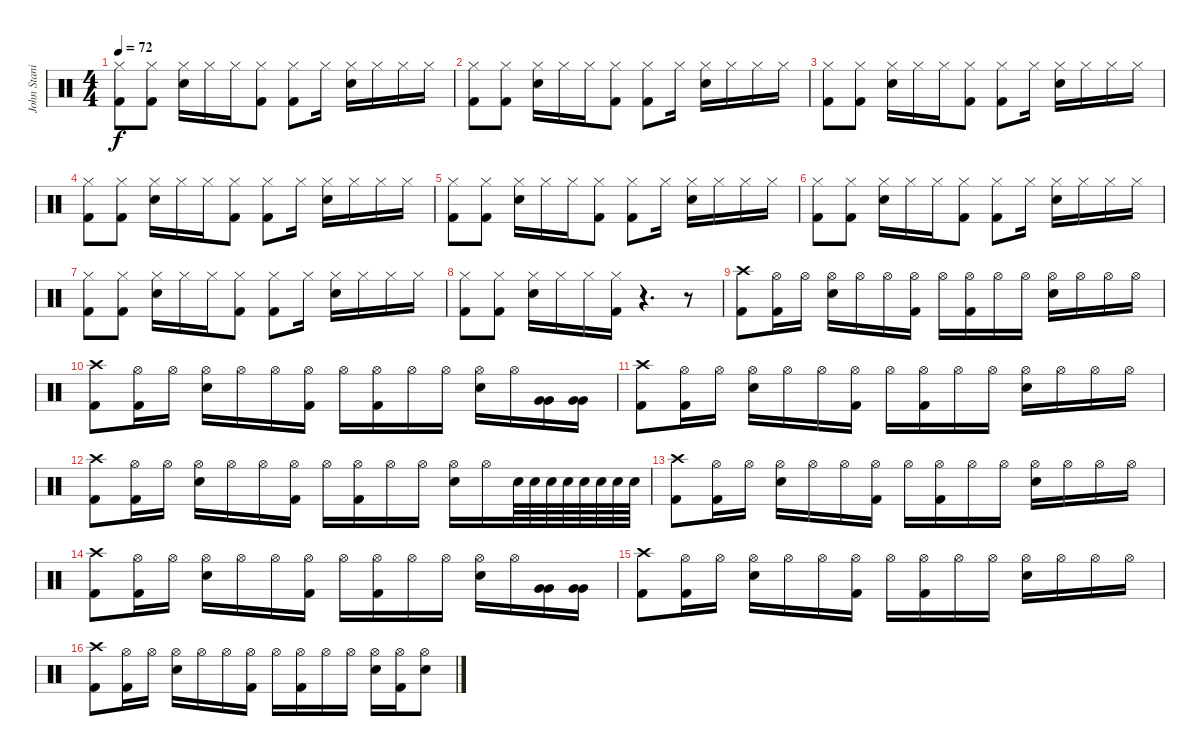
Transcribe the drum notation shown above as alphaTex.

\track ("John Stanier (Drums)" "John Stani") {instrument percussion}
\staff {score}
\articulation defaults
\ts (4 4)
\tempo 72
\clef neutral
\ks c
("Hi-Hat (closed)" "Kick (hit) 2").8{dy f} ("Hi-Hat (closed)" "Kick (hit) 2").8 ("Hi-Hat (closed)" "Electric Snare (hit)").16 "Hi-Hat (closed)".16 "Hi-Hat (closed)".16 ("Hi-Hat (closed)" "Kick (hit) 2").8 ("Hi-Hat (closed)" "Kick (hit) 2").8 "Hi-Hat (closed)".16 ("Hi-Hat (closed)" "Electric Snare (hit)").16 "Hi-Hat (closed)".16 "Hi-Hat (closed)".16 "Hi-Hat (closed)".16 |
("Hi-Hat (closed)" "Kick (hit) 2").8 ("Hi-Hat (closed)" "Kick (hit) 2").8 ("Hi-Hat (closed)" "Electric Snare (hit)").16 "Hi-Hat (closed)".16 "Hi-Hat (closed)".16 ("Hi-Hat (closed)" "Kick (hit) 2").8 ("Hi-Hat (closed)" "Kick (hit) 2").8 "Hi-Hat (closed)".16 ("Hi-Hat (closed)" "Electric Snare (hit)").16 "Hi-Hat (closed)".16 "Hi-Hat (closed)".16 "Hi-Hat (closed)".16 |
("Hi-Hat (closed)" "Kick (hit) 2").8 ("Hi-Hat (closed)" "Kick (hit) 2").8 ("Hi-Hat (closed)" "Electric Snare (hit)").16 "Hi-Hat (closed)".16 "Hi-Hat (closed)".16 ("Hi-Hat (closed)" "Kick (hit) 2").8 ("Hi-Hat (closed)" "Kick (hit) 2").8 "Hi-Hat (closed)".16 ("Hi-Hat (closed)" "Electric Snare (hit)").16 "Hi-Hat (closed)".16 "Hi-Hat (closed)".16 "Hi-Hat (closed)".16 |
("Hi-Hat (closed)" "Kick (hit) 2").8 ("Hi-Hat (closed)" "Kick (hit) 2").8 ("Hi-Hat (closed)" "Electric Snare (hit)").16 "Hi-Hat (closed)".16 "Hi-Hat (closed)".16 ("Hi-Hat (closed)" "Kick (hit) 2").8 ("Hi-Hat (closed)" "Kick (hit) 2").8 "Hi-Hat (closed)".16 ("Hi-Hat (closed)" "Electric Snare (hit)").16 "Hi-Hat (closed)".16 "Hi-Hat (closed)".16 "Hi-Hat (closed)".16 |
("Hi-Hat (closed)" "Kick (hit) 2").8 ("Hi-Hat (closed)" "Kick (hit) 2").8 ("Hi-Hat (closed)" "Electric Snare (hit)").16 "Hi-Hat (closed)".16 "Hi-Hat (closed)".16 ("Hi-Hat (closed)" "Kick (hit) 2").8 ("Hi-Hat (closed)" "Kick (hit) 2").8 "Hi-Hat (closed)".16 ("Hi-Hat (closed)" "Electric Snare (hit)").16 "Hi-Hat (closed)".16 "Hi-Hat (closed)".16 "Hi-Hat (closed)".16 |
("Hi-Hat (closed)" "Kick (hit) 2").8 ("Hi-Hat (closed)" "Kick (hit) 2").8 ("Hi-Hat (closed)" "Electric Snare (hit)").16 "Hi-Hat (closed)".16 "Hi-Hat (closed)".16 ("Hi-Hat (closed)" "Kick (hit) 2").8 ("Hi-Hat (closed)" "Kick (hit) 2").8 "Hi-Hat (closed)".16 ("Hi-Hat (closed)" "Electric Snare (hit)").16 "Hi-Hat (closed)".16 "Hi-Hat (closed)".16 "Hi-Hat (closed)".16 |
("Hi-Hat (closed)" "Kick (hit) 2").8 ("Hi-Hat (closed)" "Kick (hit) 2").8 ("Hi-Hat (closed)" "Electric Snare (hit)").16 "Hi-Hat (closed)".16 "Hi-Hat (closed)".16 ("Hi-Hat (closed)" "Kick (hit) 2").8 ("Hi-Hat (closed)" "Kick (hit) 2").8 "Hi-Hat (closed)".16 ("Hi-Hat (closed)" "Electric Snare (hit)").16 "Hi-Hat (closed)".16 "Hi-Hat (closed)".16 "Hi-Hat (closed)".16 |
("Hi-Hat (closed)" "Kick (hit) 2").8 ("Hi-Hat (closed)" "Kick (hit) 2").8 ("Hi-Hat (closed)" "Electric Snare (hit)").16 "Hi-Hat (closed)".16 "Hi-Hat (closed)".16 ("Hi-Hat (closed)" "Kick (hit) 2").16 r.4{d} r.8 |
("Crash high (hit)" "Kick (hit) 2").8 ("Hi-Hat (open)" "Kick (hit) 2").16 "Hi-Hat (open)".16 ("Hi-Hat (open)" "Electric Snare (hit)").16 "Hi-Hat (open)".16 "Hi-Hat (open)".16 ("Hi-Hat (open)" "Kick (hit) 2").16 "Hi-Hat (open)".16 ("Hi-Hat (open)" "Kick (hit) 2").16 "Hi-Hat (open)".16 "Hi-Hat (open)".16 ("Hi-Hat (open)" "Electric Snare (hit)").16 "Hi-Hat (open)".16 "Hi-Hat (open)".16 "Hi-Hat (open)".16 |
("Crash high (hit)" "Kick (hit) 2").8 ("Hi-Hat (open)" "Kick (hit) 2").16 "Hi-Hat (open)".16 ("Hi-Hat (open)" "Electric Snare (hit)").16 "Hi-Hat (open)".16 "Hi-Hat (open)".16 ("Hi-Hat (open)" "Kick (hit) 2").16 "Hi-Hat (open)".16 ("Hi-Hat (open)" "Kick (hit) 2").16 "Hi-Hat (open)".16 "Hi-Hat (open)".16 ("Hi-Hat (open)" "Electric Snare (hit)").16 "Hi-Hat (open)".16 ("Very Low Tom (hit)" "Very Low Tom (hit)").16 ("Very Low Tom (hit)" "Very Low Tom (hit)").16 |
("Crash high (hit)" "Kick (hit) 2").8 ("Hi-Hat (open)" "Kick (hit) 2").16 "Hi-Hat (open)".16 ("Hi-Hat (open)" "Electric Snare (hit)").16 "Hi-Hat (open)".16 "Hi-Hat (open)".16 ("Hi-Hat (open)" "Kick (hit) 2").16 "Hi-Hat (open)".16 ("Hi-Hat (open)" "Kick (hit) 2").16 "Hi-Hat (open)".16 "Hi-Hat (open)".16 ("Hi-Hat (open)" "Electric Snare (hit)").16 "Hi-Hat (open)".16 "Hi-Hat (open)".16 "Hi-Hat (open)".16 |
("Crash high (hit)" "Kick (hit) 2").8 ("Hi-Hat (open)" "Kick (hit) 2").16 "Hi-Hat (open)".16 ("Hi-Hat (open)" "Electric Snare (hit)").16 "Hi-Hat (open)".16 "Hi-Hat (open)".16 ("Hi-Hat (open)" "Kick (hit) 2").16 "Hi-Hat (open)".16 ("Hi-Hat (open)" "Kick (hit) 2").16 "Hi-Hat (open)".16 "Hi-Hat (open)".16 ("Hi-Hat (open)" "Electric Snare (hit)").16 "Hi-Hat (open)".16 "Electric Snare (hit)".64 "Electric Snare (hit)".64 "Electric Snare (hit)".64 "Electric Snare (hit)".64 "Electric Snare (hit)".64 "Electric Snare (hit)".64 "Electric Snare (hit)".64 "Electric Snare (hit)".64 |
("Crash high (hit)" "Kick (hit) 2").8 ("Hi-Hat (open)" "Kick (hit) 2").16 "Hi-Hat (open)".16 ("Hi-Hat (open)" "Electric Snare (hit)").16 "Hi-Hat (open)".16 "Hi-Hat (open)".16 ("Hi-Hat (open)" "Kick (hit) 2").16 "Hi-Hat (open)".16 ("Hi-Hat (open)" "Kick (hit) 2").16 "Hi-Hat (open)".16 "Hi-Hat (open)".16 ("Hi-Hat (open)" "Electric Snare (hit)").16 "Hi-Hat (open)".16 "Hi-Hat (open)".16 "Hi-Hat (open)".16 |
("Crash high (hit)" "Kick (hit) 2").8 ("Hi-Hat (open)" "Kick (hit) 2").16 "Hi-Hat (open)".16 ("Hi-Hat (open)" "Electric Snare (hit)").16 "Hi-Hat (open)".16 "Hi-Hat (open)".16 ("Hi-Hat (open)" "Kick (hit) 2").16 "Hi-Hat (open)".16 ("Hi-Hat (open)" "Kick (hit) 2").16 "Hi-Hat (open)".16 "Hi-Hat (open)".16 ("Hi-Hat (open)" "Electric Snare (hit)").16 "Hi-Hat (open)".16 ("Very Low Tom (hit)" "Very Low Tom (hit)").16 ("Very Low Tom (hit)" "Very Low Tom (hit)").16 |
("Crash high (hit)" "Kick (hit) 2").8 ("Hi-Hat (open)" "Kick (hit) 2").16 "Hi-Hat (open)".16 ("Hi-Hat (open)" "Electric Snare (hit)").16 "Hi-Hat (open)".16 "Hi-Hat (open)".16 ("Hi-Hat (open)" "Kick (hit) 2").16 "Hi-Hat (open)".16 ("Hi-Hat (open)" "Kick (hit) 2").16 "Hi-Hat (open)".16 "Hi-Hat (open)".16 ("Hi-Hat (open)" "Electric Snare (hit)").16 "Hi-Hat (open)".16 "Hi-Hat (open)".16 "Hi-Hat (open)".16 |
("Crash high (hit)" "Kick (hit) 2").8 ("Hi-Hat (open)" "Kick (hit) 2").16 "Hi-Hat (open)".16 ("Hi-Hat (open)" "Electric Snare (hit)").16 "Hi-Hat (open)".16 "Hi-Hat (open)".16 ("Hi-Hat (open)" "Kick (hit) 2").16 "Hi-Hat (open)".16 ("Hi-Hat (open)" "Kick (hit) 2").16 "Hi-Hat (open)".16 "Hi-Hat (open)".16 ("Hi-Hat (open)" "Electric Snare (hit)").16 ("Hi-Hat (open)" "Kick (hit) 2").16 ("Hi-Hat (open)" "Electric Snare (hit)").8
